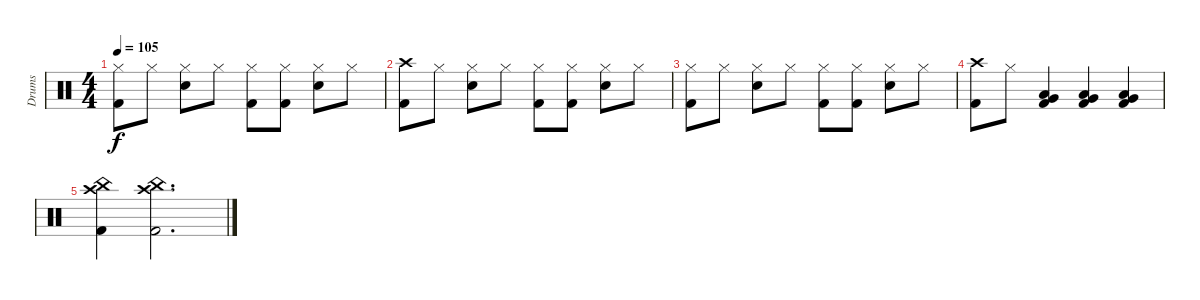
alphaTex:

\track ("Drums" "Drums") {instrument percussion}
\staff {score}
\articulation defaults
\ts (4 4)
\tempo 105
\clef neutral
\ks c
("Hi-Hat (closed)" "Kick (hit) 2").8{dy f} "Hi-Hat (closed)".8 ("Hi-Hat (closed)" "Snare (hit) 2").8 "Hi-Hat (closed)".8 ("Hi-Hat (closed)" "Kick (hit) 2").8 ("Hi-Hat (closed)" "Kick (hit) 2").8 ("Hi-Hat (closed)" "Snare (hit) 2").8 "Hi-Hat (closed)".8 |
("Crash high (hit)" "Kick (hit) 2").8 "Hi-Hat (closed)".8 ("Hi-Hat (closed)" "Snare (hit) 2").8 "Hi-Hat (closed)".8 ("Hi-Hat (closed)" "Kick (hit) 2").8 ("Hi-Hat (closed)" "Kick (hit) 2").8 ("Hi-Hat (closed)" "Snare (hit) 2").8 "Hi-Hat (closed)".8 |
("Hi-Hat (closed)" "Kick (hit) 2").8 "Hi-Hat (closed)".8 ("Hi-Hat (closed)" "Snare (hit) 2").8 "Hi-Hat (closed)".8 ("Hi-Hat (closed)" "Kick (hit) 2").8 ("Hi-Hat (closed)" "Kick (hit) 2").8 ("Hi-Hat (closed)" "Snare (hit) 2").8 "Hi-Hat (closed)".8 |
("Crash high (hit)" "Kick (hit) 2").8 "Hi-Hat (closed)".8 ("Low Tom (hit)" "Very Low Tom (hit)" "Kick (hit) 2").4 ("Low Tom (hit)" "Very Low Tom (hit)" "Kick (hit) 2").4 ("Low Tom (hit)" "Very Low Tom (hit)" "Kick (hit) 2").4 |
("Crash high (hit)" "China (hit)" "Kick (hit) 2").4 ("Crash high (hit)" "China (hit)" "Kick (hit) 2").2{d}
